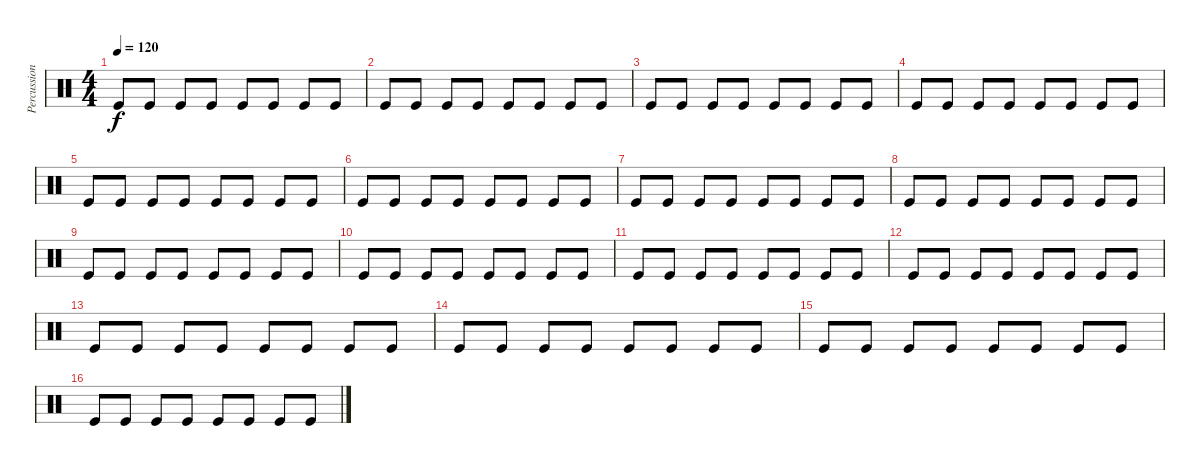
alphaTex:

\track ("Percussion" "Percussion") {instrument percussion}
\staff {score}
\articulation defaults
\ts (4 4)
\tempo 120
\clef neutral
\ks c "Kick (hit)".8{dy f} "Kick (hit)".8 "Kick (hit)".8 "Kick (hit)".8 "Kick (hit)".8 "Kick (hit)".8 "Kick (hit)".8 "Kick (hit)".8
|
"Kick (hit)".8 "Kick (hit)".8 "Kick (hit)".8 "Kick (hit)".8 "Kick (hit)".8 "Kick (hit)".8 "Kick (hit)".8 "Kick (hit)".8 |
"Kick (hit)".8 "Kick (hit)".8 "Kick (hit)".8 "Kick (hit)".8 "Kick (hit)".8 "Kick (hit)".8 "Kick (hit)".8 "Kick (hit)".8 |
"Kick (hit)".8 "Kick (hit)".8 "Kick (hit)".8 "Kick (hit)".8 "Kick (hit)".8 "Kick (hit)".8 "Kick (hit)".8 "Kick (hit)".8 |
"Kick (hit)".8 "Kick (hit)".8 "Kick (hit)".8 "Kick (hit)".8 "Kick (hit)".8 "Kick (hit)".8 "Kick (hit)".8 "Kick (hit)".8 |
"Kick (hit)".8 "Kick (hit)".8 "Kick (hit)".8 "Kick (hit)".8 "Kick (hit)".8 "Kick (hit)".8 "Kick (hit)".8 "Kick (hit)".8 |
"Kick (hit)".8 "Kick (hit)".8 "Kick (hit)".8 "Kick (hit)".8 "Kick (hit)".8 "Kick (hit)".8 "Kick (hit)".8 "Kick (hit)".8 |
"Kick (hit)".8 "Kick (hit)".8 "Kick (hit)".8 "Kick (hit)".8 "Kick (hit)".8 "Kick (hit)".8 "Kick (hit)".8 "Kick (hit)".8 |
"Kick (hit)".8 "Kick (hit)".8 "Kick (hit)".8 "Kick (hit)".8 "Kick (hit)".8 "Kick (hit)".8 "Kick (hit)".8 "Kick (hit)".8 |
"Kick (hit)".8 "Kick (hit)".8 "Kick (hit)".8 "Kick (hit)".8 "Kick (hit)".8 "Kick (hit)".8 "Kick (hit)".8 "Kick (hit)".8 |
"Kick (hit)".8 "Kick (hit)".8 "Kick (hit)".8 "Kick (hit)".8 "Kick (hit)".8 "Kick (hit)".8 "Kick (hit)".8 "Kick (hit)".8 |
"Kick (hit)".8 "Kick (hit)".8 "Kick (hit)".8 "Kick (hit)".8 "Kick (hit)".8 "Kick (hit)".8 "Kick (hit)".8 "Kick (hit)".8 |
"Kick (hit)".8 "Kick (hit)".8 "Kick (hit)".8 "Kick (hit)".8 "Kick (hit)".8 "Kick (hit)".8 "Kick (hit)".8 "Kick (hit)".8 |
"Kick (hit)".8 "Kick (hit)".8 "Kick (hit)".8 "Kick (hit)".8 "Kick (hit)".8 "Kick (hit)".8 "Kick (hit)".8 "Kick (hit)".8 |
"Kick (hit)".8 "Kick (hit)".8 "Kick (hit)".8 "Kick (hit)".8 "Kick (hit)".8 "Kick (hit)".8 "Kick (hit)".8 "Kick (hit)".8 |
"Kick (hit)".8 "Kick (hit)".8 "Kick (hit)".8 "Kick (hit)".8 "Kick (hit)".8 "Kick (hit)".8 "Kick (hit)".8 "Kick (hit)".8
